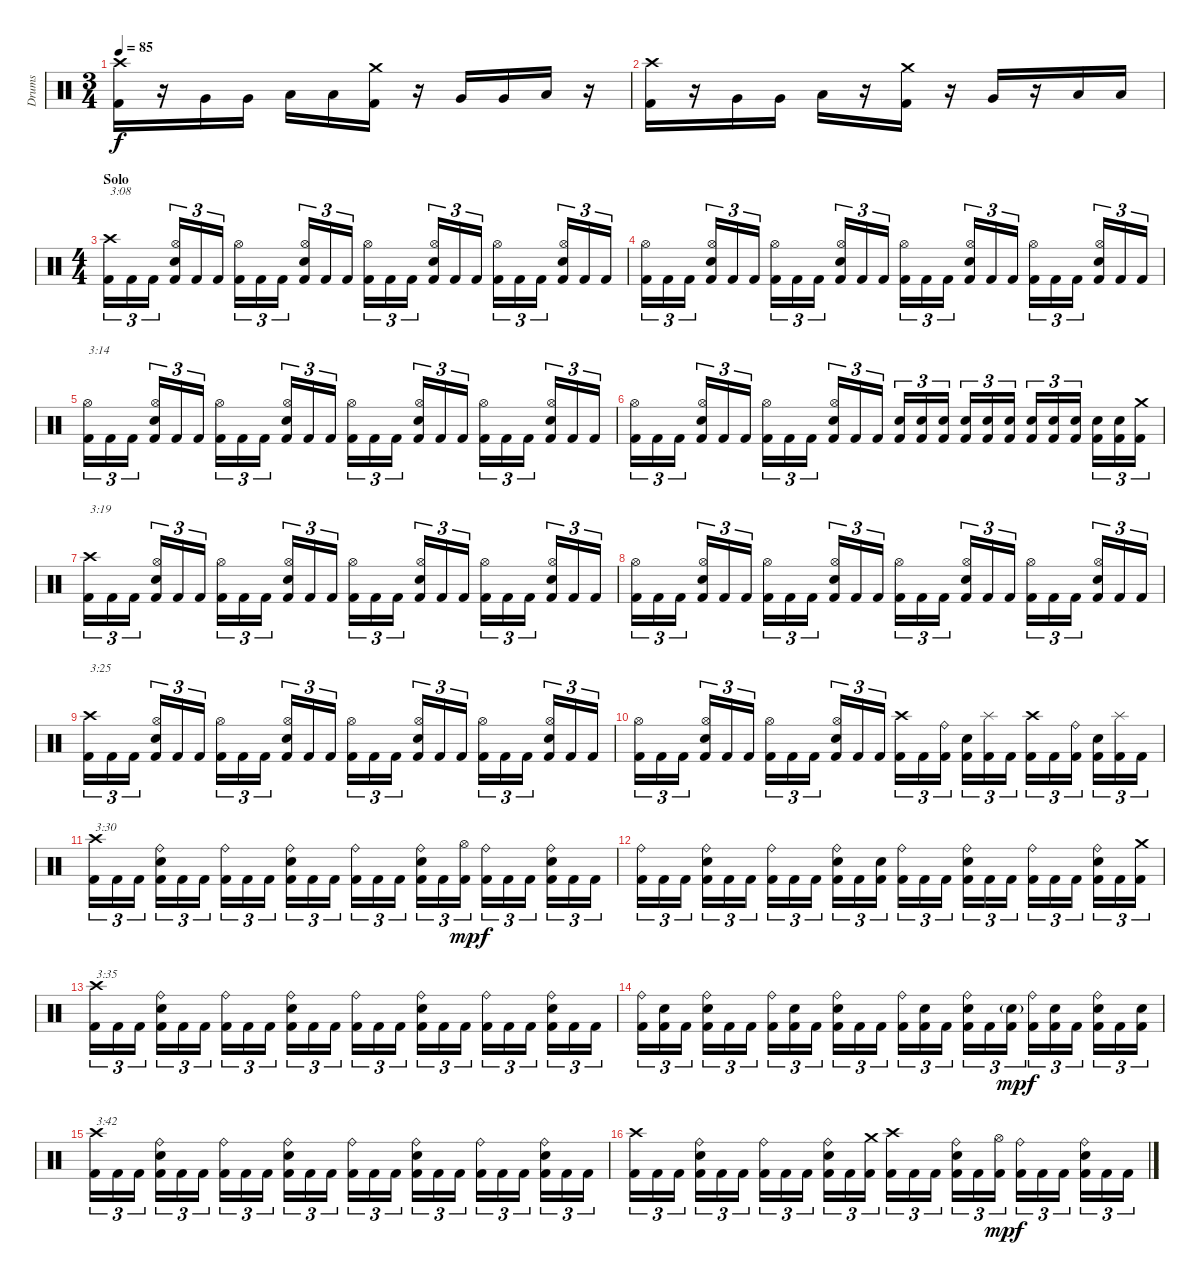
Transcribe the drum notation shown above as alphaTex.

\track ("Drums" "Drums") {instrument percussion}
\staff {score}
\articulation defaults
\ts (3 4)
\tempo 85
\clef neutral
\ks c
("Crash high (hit)" "Kick (hit) 2").16{dy f} r.16 "Very Low Tom (hit)".16 "Very Low Tom (hit)".16 "Low Floor Tom (hit)".16 "Low Floor Tom (hit)".16 ("Crash medium (hit)" "Kick (hit) 2").16 r.16 "Very Low Tom (hit)".16 "Very Low Tom (hit)".16 "Low Floor Tom (hit)".16 r.16 |
("Crash high (hit)" "Kick (hit) 2").16 r.16 "Very Low Tom (hit)".16 "Very Low Tom (hit)".16 "Low Floor Tom (hit)".16 r.16 ("Crash medium (hit)" "Kick (hit) 2").16 r.16 "Very Low Tom (hit)".16 r.16 "Low Floor Tom (hit)".16 "Low Floor Tom (hit)".16 |
\ts (4 4)
\section ("" "Solo")
("Crash high (hit)" "Kick (hit) 2").16{tu (3 2) txt "3:08"} "Kick (hit) 2".16{tu (3 2)} "Kick (hit) 2".16{tu (3 2)} ("Hi-Hat (open)" "Electric Snare (hit)" "Kick (hit) 2").16{tu (3 2)} "Kick (hit) 2".16{tu (3 2)} "Kick (hit) 2".16{tu (3 2)} ("Hi-Hat (open)" "Kick (hit) 2").16{tu (3 2)} "Kick (hit) 2".16{tu (3 2)} "Kick (hit) 2".16{tu (3 2)} ("Hi-Hat (open)" "Electric Snare (hit)" "Kick (hit) 2").16{tu (3 2)} "Kick (hit) 2".16{tu (3 2)} "Kick (hit) 2".16{tu (3 2)} ("Hi-Hat (open)" "Kick (hit) 2").16{tu (3 2)} "Kick (hit) 2".16{tu (3 2)} "Kick (hit) 2".16{tu (3 2)} ("Hi-Hat (open)" "Electric Snare (hit)" "Kick (hit) 2").16{tu (3 2)} "Kick (hit) 2".16{tu (3 2)} "Kick (hit) 2".16{tu (3 2)} ("Hi-Hat (open)" "Kick (hit) 2").16{tu (3 2)} "Kick (hit) 2".16{tu (3 2)} "Kick (hit) 2".16{tu (3 2)} ("Hi-Hat (open)" "Electric Snare (hit)" "Kick (hit) 2").16{tu (3 2)} "Kick (hit) 2".16{tu (3 2)} "Kick (hit) 2".16{tu (3 2)} |
("Hi-Hat (open)" "Kick (hit) 2").16{tu (3 2)} "Kick (hit) 2".16{tu (3 2)} "Kick (hit) 2".16{tu (3 2)} ("Hi-Hat (open)" "Electric Snare (hit)" "Kick (hit) 2").16{tu (3 2)} "Kick (hit) 2".16{tu (3 2)} "Kick (hit) 2".16{tu (3 2)} ("Hi-Hat (open)" "Kick (hit) 2").16{tu (3 2)} "Kick (hit) 2".16{tu (3 2)} "Kick (hit) 2".16{tu (3 2)} ("Hi-Hat (open)" "Electric Snare (hit)" "Kick (hit) 2").16{tu (3 2)} "Kick (hit) 2".16{tu (3 2)} "Kick (hit) 2".16{tu (3 2)} ("Hi-Hat (open)" "Kick (hit) 2").16{tu (3 2)} "Kick (hit) 2".16{tu (3 2)} "Kick (hit) 2".16{tu (3 2)} ("Hi-Hat (open)" "Electric Snare (hit)" "Kick (hit) 2").16{tu (3 2)} "Kick (hit) 2".16{tu (3 2)} "Kick (hit) 2".16{tu (3 2)} ("Hi-Hat (open)" "Kick (hit) 2").16{tu (3 2)} "Kick (hit) 2".16{tu (3 2)} "Kick (hit) 2".16{tu (3 2)} ("Hi-Hat (open)" "Electric Snare (hit)" "Kick (hit) 2").16{tu (3 2)} "Kick (hit) 2".16{tu (3 2)} "Kick (hit) 2".16{tu (3 2)} |
("Hi-Hat (open)" "Kick (hit) 2").16{tu (3 2) txt "3:14"} "Kick (hit) 2".16{tu (3 2)} "Kick (hit) 2".16{tu (3 2)} ("Hi-Hat (open)" "Electric Snare (hit)" "Kick (hit) 2").16{tu (3 2)} "Kick (hit) 2".16{tu (3 2)} "Kick (hit) 2".16{tu (3 2)} ("Hi-Hat (open)" "Kick (hit) 2").16{tu (3 2)} "Kick (hit) 2".16{tu (3 2)} "Kick (hit) 2".16{tu (3 2)} ("Hi-Hat (open)" "Electric Snare (hit)" "Kick (hit) 2").16{tu (3 2)} "Kick (hit) 2".16{tu (3 2)} "Kick (hit) 2".16{tu (3 2)} ("Hi-Hat (open)" "Kick (hit) 2").16{tu (3 2)} "Kick (hit) 2".16{tu (3 2)} "Kick (hit) 2".16{tu (3 2)} ("Hi-Hat (open)" "Electric Snare (hit)" "Kick (hit) 2").16{tu (3 2)} "Kick (hit) 2".16{tu (3 2)} "Kick (hit) 2".16{tu (3 2)} ("Hi-Hat (open)" "Kick (hit) 2").16{tu (3 2)} "Kick (hit) 2".16{tu (3 2)} "Kick (hit) 2".16{tu (3 2)} ("Hi-Hat (open)" "Electric Snare (hit)" "Kick (hit) 2").16{tu (3 2)} "Kick (hit) 2".16{tu (3 2)} "Kick (hit) 2".16{tu (3 2)} |
("Hi-Hat (open)" "Kick (hit) 2").16{tu (3 2)} "Kick (hit) 2".16{tu (3 2)} "Kick (hit) 2".16{tu (3 2)} ("Hi-Hat (open)" "Electric Snare (hit)" "Kick (hit) 2").16{tu (3 2)} "Kick (hit) 2".16{tu (3 2)} "Kick (hit) 2".16{tu (3 2)} ("Hi-Hat (open)" "Kick (hit) 2").16{tu (3 2)} "Kick (hit) 2".16{tu (3 2)} "Kick (hit) 2".16{tu (3 2)} ("Hi-Hat (open)" "Electric Snare (hit)" "Kick (hit) 2").16{tu (3 2)} "Kick (hit) 2".16{tu (3 2)} "Kick (hit) 2".16{tu (3 2)} ("Electric Snare (hit)" "Kick (hit) 2").16{tu (3 2)} ("Electric Snare (hit)" "Kick (hit) 2").16{tu (3 2)} ("Electric Snare (hit)" "Kick (hit) 2").16{tu (3 2)} ("Electric Snare (hit)" "Kick (hit) 2").16{tu (3 2)} ("Electric Snare (hit)" "Kick (hit) 2").16{tu (3 2)} ("Electric Snare (hit)" "Kick (hit) 2").16{tu (3 2)} ("Electric Snare (hit)" "Kick (hit) 2").16{tu (3 2)} ("Electric Snare (hit)" "Kick (hit) 2").16{tu (3 2)} ("Electric Snare (hit)" "Kick (hit) 2").16{tu (3 2)} ("Electric Snare (hit)" "Kick (hit) 2").16{tu (3 2)} ("Electric Snare (hit)" "Kick (hit) 2").16{tu (3 2)} ("Crash medium (hit)" "Kick (hit) 2").16{tu (3 2)} |
("Crash high (hit)" "Kick (hit) 2").16{tu (3 2) txt "3:19"} "Kick (hit) 2".16{tu (3 2)} "Kick (hit) 2".16{tu (3 2)} ("Hi-Hat (open)" "Electric Snare (hit)" "Kick (hit) 2").16{tu (3 2)} "Kick (hit) 2".16{tu (3 2)} "Kick (hit) 2".16{tu (3 2)} ("Hi-Hat (open)" "Kick (hit) 2").16{tu (3 2)} "Kick (hit) 2".16{tu (3 2)} "Kick (hit) 2".16{tu (3 2)} ("Hi-Hat (open)" "Electric Snare (hit)" "Kick (hit) 2").16{tu (3 2)} "Kick (hit) 2".16{tu (3 2)} "Kick (hit) 2".16{tu (3 2)} ("Hi-Hat (open)" "Kick (hit) 2").16{tu (3 2)} "Kick (hit) 2".16{tu (3 2)} "Kick (hit) 2".16{tu (3 2)} ("Hi-Hat (open)" "Electric Snare (hit)" "Kick (hit) 2").16{tu (3 2)} "Kick (hit) 2".16{tu (3 2)} "Kick (hit) 2".16{tu (3 2)} ("Hi-Hat (open)" "Kick (hit) 2").16{tu (3 2)} "Kick (hit) 2".16{tu (3 2)} "Kick (hit) 2".16{tu (3 2)} ("Hi-Hat (open)" "Electric Snare (hit)" "Kick (hit) 2").16{tu (3 2)} "Kick (hit) 2".16{tu (3 2)} "Kick (hit) 2".16{tu (3 2)} |
("Hi-Hat (open)" "Kick (hit) 2").16{tu (3 2)} "Kick (hit) 2".16{tu (3 2)} "Kick (hit) 2".16{tu (3 2)} ("Hi-Hat (open)" "Electric Snare (hit)" "Kick (hit) 2").16{tu (3 2)} "Kick (hit) 2".16{tu (3 2)} "Kick (hit) 2".16{tu (3 2)} ("Hi-Hat (open)" "Kick (hit) 2").16{tu (3 2)} "Kick (hit) 2".16{tu (3 2)} "Kick (hit) 2".16{tu (3 2)} ("Hi-Hat (open)" "Electric Snare (hit)" "Kick (hit) 2").16{tu (3 2)} "Kick (hit) 2".16{tu (3 2)} "Kick (hit) 2".16{tu (3 2)} ("Hi-Hat (open)" "Kick (hit) 2").16{tu (3 2)} "Kick (hit) 2".16{tu (3 2)} "Kick (hit) 2".16{tu (3 2)} ("Hi-Hat (open)" "Electric Snare (hit)" "Kick (hit) 2").16{tu (3 2)} "Kick (hit) 2".16{tu (3 2)} "Kick (hit) 2".16{tu (3 2)} ("Hi-Hat (open)" "Kick (hit) 2").16{tu (3 2)} "Kick (hit) 2".16{tu (3 2)} "Kick (hit) 2".16{tu (3 2)} ("Hi-Hat (open)" "Electric Snare (hit)" "Kick (hit) 2").16{tu (3 2)} "Kick (hit) 2".16{tu (3 2)} "Kick (hit) 2".16{tu (3 2)} |
("Crash high (hit)" "Kick (hit) 2").16{tu (3 2) txt "3:25"} "Kick (hit) 2".16{tu (3 2)} "Kick (hit) 2".16{tu (3 2)} ("Hi-Hat (open)" "Electric Snare (hit)" "Kick (hit) 2").16{tu (3 2)} "Kick (hit) 2".16{tu (3 2)} "Kick (hit) 2".16{tu (3 2)} ("Hi-Hat (open)" "Kick (hit) 2").16{tu (3 2)} "Kick (hit) 2".16{tu (3 2)} "Kick (hit) 2".16{tu (3 2)} ("Hi-Hat (open)" "Electric Snare (hit)" "Kick (hit) 2").16{tu (3 2)} "Kick (hit) 2".16{tu (3 2)} "Kick (hit) 2".16{tu (3 2)} ("Hi-Hat (open)" "Kick (hit) 2").16{tu (3 2)} "Kick (hit) 2".16{tu (3 2)} "Kick (hit) 2".16{tu (3 2)} ("Hi-Hat (open)" "Electric Snare (hit)" "Kick (hit) 2").16{tu (3 2)} "Kick (hit) 2".16{tu (3 2)} "Kick (hit) 2".16{tu (3 2)} ("Hi-Hat (open)" "Kick (hit) 2").16{tu (3 2)} "Kick (hit) 2".16{tu (3 2)} "Kick (hit) 2".16{tu (3 2)} ("Hi-Hat (open)" "Electric Snare (hit)" "Kick (hit) 2").16{tu (3 2)} "Kick (hit) 2".16{tu (3 2)} "Kick (hit) 2".16{tu (3 2)} |
("Hi-Hat (open)" "Kick (hit) 2").16{tu (3 2)} "Kick (hit) 2".16{tu (3 2)} "Kick (hit) 2".16{tu (3 2)} ("Hi-Hat (open)" "Electric Snare (hit)" "Kick (hit) 2").16{tu (3 2)} "Kick (hit) 2".16{tu (3 2)} "Kick (hit) 2".16{tu (3 2)} ("Hi-Hat (open)" "Kick (hit) 2").16{tu (3 2)} "Kick (hit) 2".16{tu (3 2)} "Kick (hit) 2".16{tu (3 2)} ("Hi-Hat (open)" "Electric Snare (hit)" "Kick (hit) 2").16{tu (3 2)} "Kick (hit) 2".16{tu (3 2)} "Kick (hit) 2".16{tu (3 2)} ("Crash high (hit)" "Kick (hit) 2").16{tu (3 2)} "Kick (hit) 2".16{tu (3 2)} ("Ride (bell)" "Kick (hit) 2").16{tu (3 2)} ("Electric Snare (hit)" "Kick (hit) 2").16{tu (3 2)} ("Splash (hit)" "Kick (hit) 2").16{tu (3 2)} "Kick (hit) 2".16{tu (3 2)} ("Crash high (hit)" "Kick (hit) 2").16{tu (3 2)} "Kick (hit) 2".16{tu (3 2)} ("Ride (bell)" "Kick (hit) 2").16{tu (3 2)} ("Electric Snare (hit)" "Kick (hit) 2").16{tu (3 2)} ("Splash (hit)" "Kick (hit) 2").16{tu (3 2)} "Kick (hit) 2".16{tu (3 2)} |
("Crash high (hit)" "Kick (hit) 2").16{tu (3 2) txt "3:30"} "Kick (hit) 2".16{tu (3 2)} "Kick (hit) 2".16{tu (3 2)} ("Ride (bell)" "Electric Snare (hit)" "Kick (hit) 2").16{tu (3 2)} "Kick (hit) 2".16{tu (3 2)} "Kick (hit) 2".16{tu (3 2)} ("Ride (bell)" "Kick (hit) 2").16{tu (3 2)} "Kick (hit) 2".16{tu (3 2)} "Kick (hit) 2".16{tu (3 2)} ("Ride (bell)" "Electric Snare (hit)" "Kick (hit) 2").16{tu (3 2)} "Kick (hit) 2".16{tu (3 2)} "Kick (hit) 2".16{tu (3 2)} ("Ride (bell)" "Kick (hit) 2").16{tu (3 2)} "Kick (hit) 2".16{tu (3 2)} "Kick (hit) 2".16{tu (3 2)} ("Ride (bell)" "Electric Snare (hit)" "Kick (hit) 2").16{tu (3 2)} "Kick (hit) 2".16{tu (3 2)} ("Hi-Hat (open)" "Kick (hit) 2").16{tu (3 2) dy mp} ("Ride (bell)" "Kick (hit) 2").16{tu (3 2) dy f} "Kick (hit) 2".16{tu (3 2)} "Kick (hit) 2".16{tu (3 2)} ("Ride (bell)" "Electric Snare (hit)" "Kick (hit) 2").16{tu (3 2)} "Kick (hit) 2".16{tu (3 2)} "Kick (hit) 2".16{tu (3 2)} |
("Ride (bell)" "Kick (hit) 2").16{tu (3 2)} "Kick (hit) 2".16{tu (3 2)} "Kick (hit) 2".16{tu (3 2)} ("Ride (bell)" "Electric Snare (hit)" "Kick (hit) 2").16{tu (3 2)} "Kick (hit) 2".16{tu (3 2)} "Kick (hit) 2".16{tu (3 2)} ("Ride (bell)" "Kick (hit) 2").16{tu (3 2)} "Kick (hit) 2".16{tu (3 2)} "Kick (hit) 2".16{tu (3 2)} ("Ride (bell)" "Electric Snare (hit)" "Kick (hit) 2").16{tu (3 2)} "Kick (hit) 2".16{tu (3 2)} ("Electric Snare (hit)" "Kick (hit) 2").16{tu (3 2)} ("Ride (bell)" "Kick (hit) 2").16{tu (3 2)} "Kick (hit) 2".16{tu (3 2)} "Kick (hit) 2".16{tu (3 2)} ("Ride (bell)" "Electric Snare (hit)" "Kick (hit) 2").16{tu (3 2)} "Kick (hit) 2".16{tu (3 2)} "Kick (hit) 2".16{tu (3 2)} ("Ride (bell)" "Kick (hit) 2").16{tu (3 2)} "Kick (hit) 2".16{tu (3 2)} "Kick (hit) 2".16{tu (3 2)} ("Ride (bell)" "Electric Snare (hit)" "Kick (hit) 2").16{tu (3 2)} "Kick (hit) 2".16{tu (3 2)} ("Crash medium (hit)" "Kick (hit) 2").16{tu (3 2)} |
("Crash high (hit)" "Kick (hit) 2").16{tu (3 2) txt "3:35"} "Kick (hit) 2".16{tu (3 2)} "Kick (hit) 2".16{tu (3 2)} ("Ride (bell)" "Electric Snare (hit)" "Kick (hit) 2").16{tu (3 2)} "Kick (hit) 2".16{tu (3 2)} "Kick (hit) 2".16{tu (3 2)} ("Ride (bell)" "Kick (hit) 2").16{tu (3 2)} "Kick (hit) 2".16{tu (3 2)} "Kick (hit) 2".16{tu (3 2)} ("Ride (bell)" "Electric Snare (hit)" "Kick (hit) 2").16{tu (3 2)} "Kick (hit) 2".16{tu (3 2)} "Kick (hit) 2".16{tu (3 2)} ("Ride (bell)" "Kick (hit) 2").16{tu (3 2)} "Kick (hit) 2".16{tu (3 2)} "Kick (hit) 2".16{tu (3 2)} ("Ride (bell)" "Electric Snare (hit)" "Kick (hit) 2").16{tu (3 2)} "Kick (hit) 2".16{tu (3 2)} "Kick (hit) 2".16{tu (3 2)} ("Ride (bell)" "Kick (hit) 2").16{tu (3 2)} "Kick (hit) 2".16{tu (3 2)} "Kick (hit) 2".16{tu (3 2)} ("Ride (bell)" "Electric Snare (hit)" "Kick (hit) 2").16{tu (3 2)} "Kick (hit) 2".16{tu (3 2)} "Kick (hit) 2".16{tu (3 2)} |
("Ride (bell)" "Kick (hit) 2").16{tu (3 2)} ("Electric Snare (hit)" "Kick (hit) 2").16{tu (3 2)} "Kick (hit) 2".16{tu (3 2)} ("Ride (bell)" "Electric Snare (hit)" "Kick (hit) 2").16{tu (3 2)} "Kick (hit) 2".16{tu (3 2)} "Kick (hit) 2".16{tu (3 2)} ("Ride (bell)" "Kick (hit) 2").16{tu (3 2)} ("Electric Snare (hit)" "Kick (hit) 2").16{tu (3 2)} "Kick (hit) 2".16{tu (3 2)} ("Ride (bell)" "Electric Snare (hit)" "Kick (hit) 2").16{tu (3 2)} "Kick (hit) 2".16{tu (3 2)} "Kick (hit) 2".16{tu (3 2)} ("Ride (bell)" "Kick (hit) 2").16{tu (3 2)} ("Electric Snare (hit)" "Kick (hit) 2").16{tu (3 2)} "Kick (hit) 2".16{tu (3 2)} ("Ride (bell)" "Electric Snare (hit)" "Kick (hit) 2").16{tu (3 2)} "Kick (hit) 2".16{tu (3 2)} ("Electric Snare (hit)"{g} "Kick (hit) 2").16{tu (3 2) dy mp} ("Ride (bell)" "Kick (hit) 2").16{tu (3 2) dy f} ("Electric Snare (hit)" "Kick (hit) 2").16{tu (3 2)} "Kick (hit) 2".16{tu (3 2)} ("Ride (bell)" "Electric Snare (hit)" "Kick (hit) 2").16{tu (3 2)} "Kick (hit) 2".16{tu (3 2)} ("Electric Snare (hit)" "Kick (hit) 2").16{tu (3 2)} |
("Crash high (hit)" "Kick (hit) 2").16{tu (3 2) txt "3:42"} "Kick (hit) 2".16{tu (3 2)} "Kick (hit) 2".16{tu (3 2)} ("Ride (bell)" "Electric Snare (hit)" "Kick (hit) 2").16{tu (3 2)} "Kick (hit) 2".16{tu (3 2)} "Kick (hit) 2".16{tu (3 2)} ("Ride (bell)" "Kick (hit) 2").16{tu (3 2)} "Kick (hit) 2".16{tu (3 2)} "Kick (hit) 2".16{tu (3 2)} ("Ride (bell)" "Electric Snare (hit)" "Kick (hit) 2").16{tu (3 2)} "Kick (hit) 2".16{tu (3 2)} "Kick (hit) 2".16{tu (3 2)} ("Ride (bell)" "Kick (hit) 2").16{tu (3 2)} "Kick (hit) 2".16{tu (3 2)} "Kick (hit) 2".16{tu (3 2)} ("Ride (bell)" "Electric Snare (hit)" "Kick (hit) 2").16{tu (3 2)} "Kick (hit) 2".16{tu (3 2)} "Kick (hit) 2".16{tu (3 2)} ("Ride (bell)" "Kick (hit) 2").16{tu (3 2)} "Kick (hit) 2".16{tu (3 2)} "Kick (hit) 2".16{tu (3 2)} ("Ride (bell)" "Electric Snare (hit)" "Kick (hit) 2").16{tu (3 2)} "Kick (hit) 2".16{tu (3 2)} "Kick (hit) 2".16{tu (3 2)} |
("Crash high (hit)" "Kick (hit) 2").16{tu (3 2)} "Kick (hit) 2".16{tu (3 2)} "Kick (hit) 2".16{tu (3 2)} ("Ride (bell)" "Electric Snare (hit)" "Kick (hit) 2").16{tu (3 2)} "Kick (hit) 2".16{tu (3 2)} "Kick (hit) 2".16{tu (3 2)} ("Ride (bell)" "Kick (hit) 2").16{tu (3 2)} "Kick (hit) 2".16{tu (3 2)} "Kick (hit) 2".16{tu (3 2)} ("Ride (bell)" "Electric Snare (hit)" "Kick (hit) 2").16{tu (3 2)} "Kick (hit) 2".16{tu (3 2)} ("Crash medium (hit)" "Kick (hit) 2").16{tu (3 2)} ("Crash high (hit)" "Kick (hit) 2").16{tu (3 2)} "Kick (hit) 2".16{tu (3 2)} "Kick (hit) 2".16{tu (3 2)} ("Ride (bell)" "Electric Snare (hit)" "Kick (hit) 2").16{tu (3 2)} "Kick (hit) 2".16{tu (3 2)} ("Hi-Hat (open)" "Kick (hit) 2").16{tu (3 2) dy mp} ("Ride (bell)" "Kick (hit) 2").16{tu (3 2) dy f} "Kick (hit) 2".16{tu (3 2)} "Kick (hit) 2".16{tu (3 2)} ("Ride (bell)" "Electric Snare (hit)" "Kick (hit) 2").16{tu (3 2)} "Kick (hit) 2".16{tu (3 2)} "Kick (hit) 2".16{tu (3 2)}
